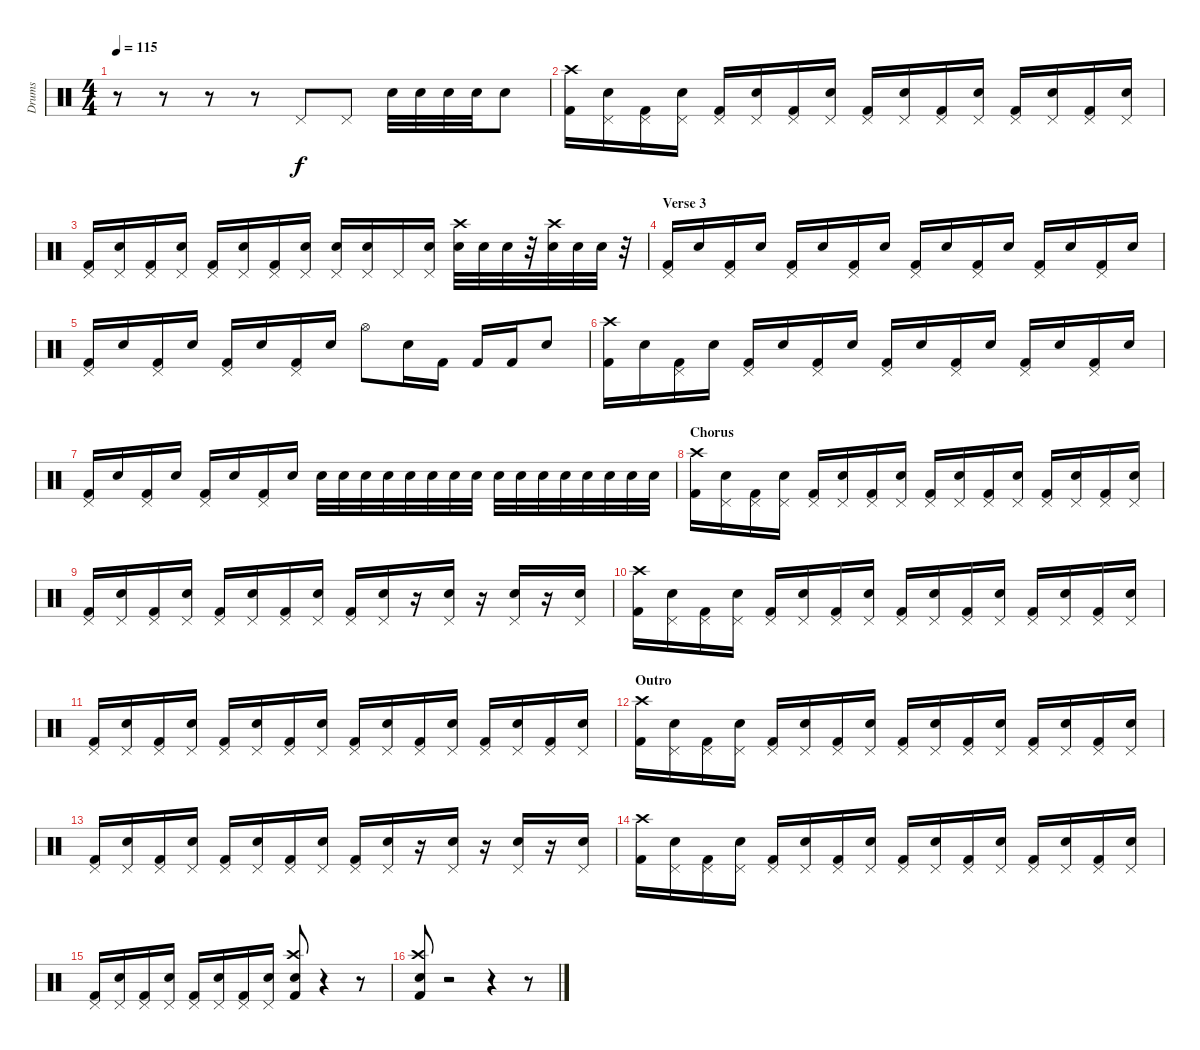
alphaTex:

\track ("Drums" "Drums") {instrument percussion}
\staff {score}
\articulation defaults
\ts (4 4)
\tempo 115
\clef neutral
\ks c
r.8{dy f} r.8 r.8 r.8 "Pedal Hi-Hat (hit)".8 "Pedal Hi-Hat (hit)".8 "Electric Snare (hit)".32 "Electric Snare (hit)".32 "Electric Snare (hit)".32 "Electric Snare (hit)".32 "Electric Snare (hit)".8 |
("Crash high (hit)" "Kick (hit) 2").16 ("Pedal Hi-Hat (hit)" "Electric Snare (hit)").16 ("Pedal Hi-Hat (hit)" "Kick (hit) 2").16 ("Pedal Hi-Hat (hit)" "Electric Snare (hit)").16 ("Pedal Hi-Hat (hit)" "Kick (hit) 2").16 ("Pedal Hi-Hat (hit)" "Electric Snare (hit)").16 ("Pedal Hi-Hat (hit)" "Kick (hit) 2").16 ("Pedal Hi-Hat (hit)" "Electric Snare (hit)").16 ("Pedal Hi-Hat (hit)" "Kick (hit) 2").16 ("Pedal Hi-Hat (hit)" "Electric Snare (hit)").16 ("Pedal Hi-Hat (hit)" "Kick (hit) 2").16 ("Pedal Hi-Hat (hit)" "Electric Snare (hit)").16 ("Pedal Hi-Hat (hit)" "Kick (hit) 2").16 ("Pedal Hi-Hat (hit)" "Electric Snare (hit)").16 ("Pedal Hi-Hat (hit)" "Kick (hit) 2").16 ("Pedal Hi-Hat (hit)" "Electric Snare (hit)").16 |
("Pedal Hi-Hat (hit)" "Kick (hit) 2").16 ("Pedal Hi-Hat (hit)" "Electric Snare (hit)").16 ("Pedal Hi-Hat (hit)" "Kick (hit) 2").16 ("Pedal Hi-Hat (hit)" "Electric Snare (hit)").16 ("Pedal Hi-Hat (hit)" "Kick (hit) 2").16 ("Pedal Hi-Hat (hit)" "Electric Snare (hit)").16 ("Pedal Hi-Hat (hit)" "Kick (hit) 2").16 ("Pedal Hi-Hat (hit)" "Electric Snare (hit)").16 ("Pedal Hi-Hat (hit)" "Electric Snare (hit)").16 ("Pedal Hi-Hat (hit)" "Electric Snare (hit)").16 "Pedal Hi-Hat (hit)".16 ("Pedal Hi-Hat (hit)" "Electric Snare (hit)").16 ("Crash high (hit)" "Electric Snare (hit)").32 "Electric Snare (hit)".32 "Electric Snare (hit)".32 r.32 ("Crash high (hit)" "Electric Snare (hit)").32 "Electric Snare (hit)".32 "Electric Snare (hit)".32 r.32 |
\section ("" "Verse 3")
("Pedal Hi-Hat (hit)" "Kick (hit) 2").16 "Electric Snare (hit)".16 ("Pedal Hi-Hat (hit)" "Kick (hit) 2").16 "Electric Snare (hit)".16 ("Pedal Hi-Hat (hit)" "Kick (hit) 2").16 "Electric Snare (hit)".16 ("Pedal Hi-Hat (hit)" "Kick (hit) 2").16 "Electric Snare (hit)".16 ("Pedal Hi-Hat (hit)" "Kick (hit) 2").16 "Electric Snare (hit)".16 ("Pedal Hi-Hat (hit)" "Kick (hit) 2").16 "Electric Snare (hit)".16 ("Pedal Hi-Hat (hit)" "Kick (hit) 2").16 "Electric Snare (hit)".16 ("Pedal Hi-Hat (hit)" "Kick (hit) 2").16 "Electric Snare (hit)".16 |
("Pedal Hi-Hat (hit)" "Kick (hit) 2").16 "Electric Snare (hit)".16 ("Pedal Hi-Hat (hit)" "Kick (hit) 2").16 "Electric Snare (hit)".16 ("Pedal Hi-Hat (hit)" "Kick (hit) 2").16 "Electric Snare (hit)".16 ("Pedal Hi-Hat (hit)" "Kick (hit) 2").16 "Electric Snare (hit)".16 "Hi-Hat (open)".8 "Electric Snare (hit)".16 "Kick (hit) 2".16 "Kick (hit) 2".16 "Kick (hit) 2".16 "Electric Snare (hit)".8 |
("Crash high (hit)" "Kick (hit) 2").16 "Electric Snare (hit)".16 ("Pedal Hi-Hat (hit)" "Kick (hit) 2").16 "Electric Snare (hit)".16 ("Pedal Hi-Hat (hit)" "Kick (hit) 2").16 "Electric Snare (hit)".16 ("Pedal Hi-Hat (hit)" "Kick (hit) 2").16 "Electric Snare (hit)".16 ("Pedal Hi-Hat (hit)" "Kick (hit) 2").16 "Electric Snare (hit)".16 ("Pedal Hi-Hat (hit)" "Kick (hit) 2").16 "Electric Snare (hit)".16 ("Pedal Hi-Hat (hit)" "Kick (hit) 2").16 "Electric Snare (hit)".16 ("Pedal Hi-Hat (hit)" "Kick (hit) 2").16 "Electric Snare (hit)".16 |
("Pedal Hi-Hat (hit)" "Kick (hit) 2").16 "Electric Snare (hit)".16 ("Pedal Hi-Hat (hit)" "Kick (hit) 2").16 "Electric Snare (hit)".16 ("Pedal Hi-Hat (hit)" "Kick (hit) 2").16 "Electric Snare (hit)".16 ("Pedal Hi-Hat (hit)" "Kick (hit) 2").16 "Electric Snare (hit)".16 "Electric Snare (hit)".32 "Electric Snare (hit)".32 "Electric Snare (hit)".32 "Electric Snare (hit)".32 "Electric Snare (hit)".32 "Electric Snare (hit)".32 "Electric Snare (hit)".32 "Electric Snare (hit)".32 "Electric Snare (hit)".32 "Electric Snare (hit)".32 "Electric Snare (hit)".32 "Electric Snare (hit)".32 "Electric Snare (hit)".32 "Electric Snare (hit)".32 "Electric Snare (hit)".32 "Electric Snare (hit)".32 |
\section ("" "Chorus")
("Crash high (hit)" "Kick (hit) 2").16 ("Pedal Hi-Hat (hit)" "Electric Snare (hit)").16 ("Pedal Hi-Hat (hit)" "Kick (hit) 2").16 ("Pedal Hi-Hat (hit)" "Electric Snare (hit)").16 ("Pedal Hi-Hat (hit)" "Kick (hit) 2").16 ("Pedal Hi-Hat (hit)" "Electric Snare (hit)").16 ("Pedal Hi-Hat (hit)" "Kick (hit) 2").16 ("Pedal Hi-Hat (hit)" "Electric Snare (hit)").16 ("Pedal Hi-Hat (hit)" "Kick (hit) 2").16 ("Pedal Hi-Hat (hit)" "Electric Snare (hit)").16 ("Pedal Hi-Hat (hit)" "Kick (hit) 2").16 ("Pedal Hi-Hat (hit)" "Electric Snare (hit)").16 ("Pedal Hi-Hat (hit)" "Kick (hit) 2").16 ("Pedal Hi-Hat (hit)" "Electric Snare (hit)").16 ("Pedal Hi-Hat (hit)" "Kick (hit) 2").16 ("Pedal Hi-Hat (hit)" "Electric Snare (hit)").16 |
("Pedal Hi-Hat (hit)" "Kick (hit) 2").16 ("Pedal Hi-Hat (hit)" "Electric Snare (hit)").16 ("Pedal Hi-Hat (hit)" "Kick (hit) 2").16 ("Pedal Hi-Hat (hit)" "Electric Snare (hit)").16 ("Pedal Hi-Hat (hit)" "Kick (hit) 2").16 ("Pedal Hi-Hat (hit)" "Electric Snare (hit)").16 ("Pedal Hi-Hat (hit)" "Kick (hit) 2").16 ("Pedal Hi-Hat (hit)" "Electric Snare (hit)").16 ("Pedal Hi-Hat (hit)" "Kick (hit) 2").16 ("Pedal Hi-Hat (hit)" "Electric Snare (hit)").16 r.16 ("Pedal Hi-Hat (hit)" "Electric Snare (hit)").16 r.16 ("Pedal Hi-Hat (hit)" "Electric Snare (hit)").16 r.16 ("Pedal Hi-Hat (hit)" "Electric Snare (hit)").16 |
("Crash high (hit)" "Kick (hit) 2").16 ("Pedal Hi-Hat (hit)" "Electric Snare (hit)").16 ("Pedal Hi-Hat (hit)" "Kick (hit) 2").16 ("Pedal Hi-Hat (hit)" "Electric Snare (hit)").16 ("Pedal Hi-Hat (hit)" "Kick (hit) 2").16 ("Pedal Hi-Hat (hit)" "Electric Snare (hit)").16 ("Pedal Hi-Hat (hit)" "Kick (hit) 2").16 ("Pedal Hi-Hat (hit)" "Electric Snare (hit)").16 ("Pedal Hi-Hat (hit)" "Kick (hit) 2").16 ("Pedal Hi-Hat (hit)" "Electric Snare (hit)").16 ("Pedal Hi-Hat (hit)" "Kick (hit) 2").16 ("Pedal Hi-Hat (hit)" "Electric Snare (hit)").16 ("Pedal Hi-Hat (hit)" "Kick (hit) 2").16 ("Pedal Hi-Hat (hit)" "Electric Snare (hit)").16 ("Pedal Hi-Hat (hit)" "Kick (hit) 2").16 ("Pedal Hi-Hat (hit)" "Electric Snare (hit)").16 |
("Pedal Hi-Hat (hit)" "Kick (hit) 2").16 ("Pedal Hi-Hat (hit)" "Electric Snare (hit)").16 ("Pedal Hi-Hat (hit)" "Kick (hit) 2").16 ("Pedal Hi-Hat (hit)" "Electric Snare (hit)").16 ("Pedal Hi-Hat (hit)" "Kick (hit) 2").16 ("Pedal Hi-Hat (hit)" "Electric Snare (hit)").16 ("Pedal Hi-Hat (hit)" "Kick (hit) 2").16 ("Pedal Hi-Hat (hit)" "Electric Snare (hit)").16 ("Pedal Hi-Hat (hit)" "Kick (hit) 2").16 ("Pedal Hi-Hat (hit)" "Electric Snare (hit)").16 ("Pedal Hi-Hat (hit)" "Kick (hit) 2").16 ("Pedal Hi-Hat (hit)" "Electric Snare (hit)").16 ("Pedal Hi-Hat (hit)" "Kick (hit) 2").16 ("Pedal Hi-Hat (hit)" "Electric Snare (hit)").16 ("Pedal Hi-Hat (hit)" "Kick (hit) 2").16 ("Pedal Hi-Hat (hit)" "Electric Snare (hit)").16 |
\section ("" "Outro")
("Crash high (hit)" "Kick (hit) 2").16 ("Pedal Hi-Hat (hit)" "Electric Snare (hit)").16 ("Pedal Hi-Hat (hit)" "Kick (hit) 2").16 ("Pedal Hi-Hat (hit)" "Electric Snare (hit)").16 ("Pedal Hi-Hat (hit)" "Kick (hit) 2").16 ("Pedal Hi-Hat (hit)" "Electric Snare (hit)").16 ("Pedal Hi-Hat (hit)" "Kick (hit) 2").16 ("Pedal Hi-Hat (hit)" "Electric Snare (hit)").16 ("Pedal Hi-Hat (hit)" "Kick (hit) 2").16 ("Pedal Hi-Hat (hit)" "Electric Snare (hit)").16 ("Pedal Hi-Hat (hit)" "Kick (hit) 2").16 ("Pedal Hi-Hat (hit)" "Electric Snare (hit)").16 ("Pedal Hi-Hat (hit)" "Kick (hit) 2").16 ("Pedal Hi-Hat (hit)" "Electric Snare (hit)").16 ("Pedal Hi-Hat (hit)" "Kick (hit) 2").16 ("Pedal Hi-Hat (hit)" "Electric Snare (hit)").16 |
("Pedal Hi-Hat (hit)" "Kick (hit) 2").16 ("Pedal Hi-Hat (hit)" "Electric Snare (hit)").16 ("Pedal Hi-Hat (hit)" "Kick (hit) 2").16 ("Pedal Hi-Hat (hit)" "Electric Snare (hit)").16 ("Pedal Hi-Hat (hit)" "Kick (hit) 2").16 ("Pedal Hi-Hat (hit)" "Electric Snare (hit)").16 ("Pedal Hi-Hat (hit)" "Kick (hit) 2").16 ("Pedal Hi-Hat (hit)" "Electric Snare (hit)").16 ("Pedal Hi-Hat (hit)" "Kick (hit) 2").16 ("Pedal Hi-Hat (hit)" "Electric Snare (hit)").16 r.16 ("Pedal Hi-Hat (hit)" "Electric Snare (hit)").16 r.16 ("Pedal Hi-Hat (hit)" "Electric Snare (hit)").16 r.16 ("Pedal Hi-Hat (hit)" "Electric Snare (hit)").16 |
("Crash high (hit)" "Kick (hit) 2").16 ("Pedal Hi-Hat (hit)" "Electric Snare (hit)").16 ("Pedal Hi-Hat (hit)" "Kick (hit) 2").16 ("Pedal Hi-Hat (hit)" "Electric Snare (hit)").16 ("Pedal Hi-Hat (hit)" "Kick (hit) 2").16 ("Pedal Hi-Hat (hit)" "Electric Snare (hit)").16 ("Pedal Hi-Hat (hit)" "Kick (hit) 2").16 ("Pedal Hi-Hat (hit)" "Electric Snare (hit)").16 ("Pedal Hi-Hat (hit)" "Kick (hit) 2").16 ("Pedal Hi-Hat (hit)" "Electric Snare (hit)").16 ("Pedal Hi-Hat (hit)" "Kick (hit) 2").16 ("Pedal Hi-Hat (hit)" "Electric Snare (hit)").16 ("Pedal Hi-Hat (hit)" "Kick (hit) 2").16 ("Pedal Hi-Hat (hit)" "Electric Snare (hit)").16 ("Pedal Hi-Hat (hit)" "Kick (hit) 2").16 ("Pedal Hi-Hat (hit)" "Electric Snare (hit)").16 |
("Pedal Hi-Hat (hit)" "Kick (hit) 2").16 ("Pedal Hi-Hat (hit)" "Electric Snare (hit)").16 ("Pedal Hi-Hat (hit)" "Kick (hit) 2").16 ("Pedal Hi-Hat (hit)" "Electric Snare (hit)").16 ("Pedal Hi-Hat (hit)" "Kick (hit) 2").16 ("Pedal Hi-Hat (hit)" "Electric Snare (hit)").16 ("Pedal Hi-Hat (hit)" "Kick (hit) 2").16 ("Pedal Hi-Hat (hit)" "Electric Snare (hit)").16 ("Crash high (hit)" "Electric Snare (hit)" "Kick (hit) 2").8 r.4 r.8 |
("Crash high (hit)" "Electric Snare (hit)" "Kick (hit) 2").8 r.2 r.4 r.8
